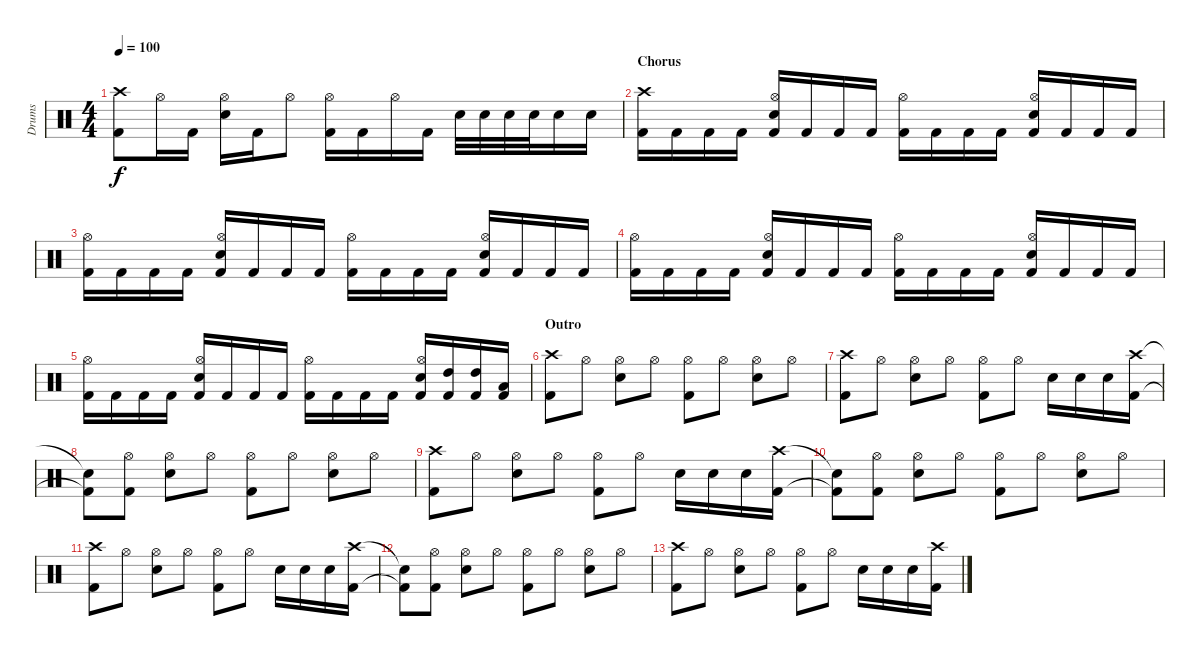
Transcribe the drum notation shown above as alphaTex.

\track ("Drums" "Drums") {instrument percussion}
\staff {score}
\articulation defaults
\ts (4 4)
\tempo 100
\clef neutral
\ks c
("Crash high (hit)" "Kick (hit) 2").8{dy f} "Hi-Hat (open)".16 "Kick (hit) 2".16 ("Hi-Hat (open)" "Snare (hit) 2").16 "Kick (hit) 2".16 "Hi-Hat (open)".8 ("Hi-Hat (open)" "Kick (hit) 2").16 "Kick (hit) 2".16 "Hi-Hat (open)".16 "Kick (hit) 2".16 "Snare (hit) 2".32 "Snare (hit) 2".32 "Snare (hit) 2".32 "Snare (hit) 2".32 "Snare (hit) 2".16 "Snare (hit) 2".16 |
\section ("" "Chorus")
("Crash high (hit)" "Kick (hit) 2").16 "Kick (hit) 2".16 "Kick (hit) 2".16 "Kick (hit) 2".16 ("Hi-Hat (open)" "Snare (hit) 2" "Kick (hit) 2").16 "Kick (hit) 2".16 "Kick (hit) 2".16 "Kick (hit) 2".16 ("Hi-Hat (open)" "Kick (hit) 2").16 "Kick (hit) 2".16 "Kick (hit) 2".16 "Kick (hit) 2".16 ("Hi-Hat (open)" "Snare (hit) 2" "Kick (hit) 2").16 "Kick (hit) 2".16 "Kick (hit) 2".16 "Kick (hit) 2".16 |
("Hi-Hat (open)" "Kick (hit) 2").16 "Kick (hit) 2".16 "Kick (hit) 2".16 "Kick (hit) 2".16 ("Hi-Hat (open)" "Snare (hit) 2" "Kick (hit) 2").16 "Kick (hit) 2".16 "Kick (hit) 2".16 "Kick (hit) 2".16 ("Hi-Hat (open)" "Kick (hit) 2").16 "Kick (hit) 2".16 "Kick (hit) 2".16 "Kick (hit) 2".16 ("Hi-Hat (open)" "Snare (hit) 2" "Kick (hit) 2").16 "Kick (hit) 2".16 "Kick (hit) 2".16 "Kick (hit) 2".16 |
("Hi-Hat (open)" "Kick (hit) 2").16 "Kick (hit) 2".16 "Kick (hit) 2".16 "Kick (hit) 2".16 ("Hi-Hat (open)" "Snare (hit) 2" "Kick (hit) 2").16 "Kick (hit) 2".16 "Kick (hit) 2".16 "Kick (hit) 2".16 ("Hi-Hat (open)" "Kick (hit) 2").16 "Kick (hit) 2".16 "Kick (hit) 2".16 "Kick (hit) 2".16 ("Hi-Hat (open)" "Snare (hit) 2" "Kick (hit) 2").16 "Kick (hit) 2".16 "Kick (hit) 2".16 "Kick (hit) 2".16 |
("Hi-Hat (open)" "Kick (hit) 2").16 "Kick (hit) 2".16 "Kick (hit) 2".16 "Kick (hit) 2".16 ("Hi-Hat (open)" "Snare (hit) 2" "Kick (hit) 2").16 "Kick (hit) 2".16 "Kick (hit) 2".16 "Kick (hit) 2".16 ("Hi-Hat (open)" "Kick (hit) 2").16 "Kick (hit) 2".16 "Kick (hit) 2".16 "Kick (hit) 2".16 ("Hi-Hat (open)" "Snare (hit) 2" "Kick (hit) 2").16 ("High Tom (hit)" "Kick (hit) 2").16 ("High Tom (hit)" "Kick (hit) 2").16 ("Low Tom (hit)" "Kick (hit) 2").16 |
\section ("" "Outro")
("Crash high (hit)" "Kick (hit) 2").8 "Hi-Hat (open)".8 ("Hi-Hat (open)" "Snare (hit) 2").8 "Hi-Hat (open)".8 ("Hi-Hat (open)" "Kick (hit) 2").8 "Hi-Hat (open)".8 ("Hi-Hat (open)" "Snare (hit) 2").8 "Hi-Hat (open)".8 |
("Crash high (hit)" "Kick (hit) 2").8 "Hi-Hat (open)".8 ("Hi-Hat (open)" "Snare (hit) 2").8 "Hi-Hat (open)".8 ("Hi-Hat (open)" "Kick (hit) 2").8 "Hi-Hat (open)".8 "Snare (hit) 2".16 "Snare (hit) 2".16 "Snare (hit) 2".16 ("Crash high (hit)" "Kick (hit) 2").16 |
("Snare (hit)"{t} "Kick (hit) 2"{t}).8 ("Hi-Hat (open)" "Kick (hit) 2").8 ("Hi-Hat (open)" "Snare (hit) 2").8 "Hi-Hat (open)".8 ("Hi-Hat (open)" "Kick (hit) 2").8 "Hi-Hat (open)".8 ("Hi-Hat (open)" "Snare (hit) 2").8 "Hi-Hat (open)".8 |
("Crash high (hit)" "Kick (hit) 2").8 "Hi-Hat (open)".8 ("Hi-Hat (open)" "Snare (hit) 2").8 "Hi-Hat (open)".8 ("Hi-Hat (open)" "Kick (hit) 2").8 "Hi-Hat (open)".8 "Snare (hit) 2".16 "Snare (hit) 2".16 "Snare (hit) 2".16 ("Crash high (hit)" "Kick (hit) 2").16 |
("Snare (hit)"{t} "Kick (hit) 2"{t}).8 ("Hi-Hat (open)" "Kick (hit) 2").8 ("Hi-Hat (open)" "Snare (hit) 2").8 "Hi-Hat (open)".8 ("Hi-Hat (open)" "Kick (hit) 2").8 "Hi-Hat (open)".8 ("Hi-Hat (open)" "Snare (hit) 2").8 "Hi-Hat (open)".8 |
("Crash high (hit)" "Kick (hit) 2").8 "Hi-Hat (open)".8 ("Hi-Hat (open)" "Snare (hit) 2").8 "Hi-Hat (open)".8 ("Hi-Hat (open)" "Kick (hit) 2").8 "Hi-Hat (open)".8 "Snare (hit) 2".16 "Snare (hit) 2".16 "Snare (hit) 2".16 ("Crash high (hit)" "Kick (hit) 2").16 |
("Snare (hit)"{t} "Kick (hit) 2"{t}).8 ("Hi-Hat (open)" "Kick (hit) 2").8 ("Hi-Hat (open)" "Snare (hit) 2").8 "Hi-Hat (open)".8 ("Hi-Hat (open)" "Kick (hit) 2").8 "Hi-Hat (open)".8 ("Hi-Hat (open)" "Snare (hit) 2").8 "Hi-Hat (open)".8 |
("Crash high (hit)" "Kick (hit) 2").8 "Hi-Hat (open)".8 ("Hi-Hat (open)" "Snare (hit) 2").8 "Hi-Hat (open)".8 ("Hi-Hat (open)" "Kick (hit) 2").8 "Hi-Hat (open)".8 "Snare (hit) 2".16 "Snare (hit) 2".16 "Snare (hit) 2".16 ("Crash high (hit)" "Kick (hit) 2").16
